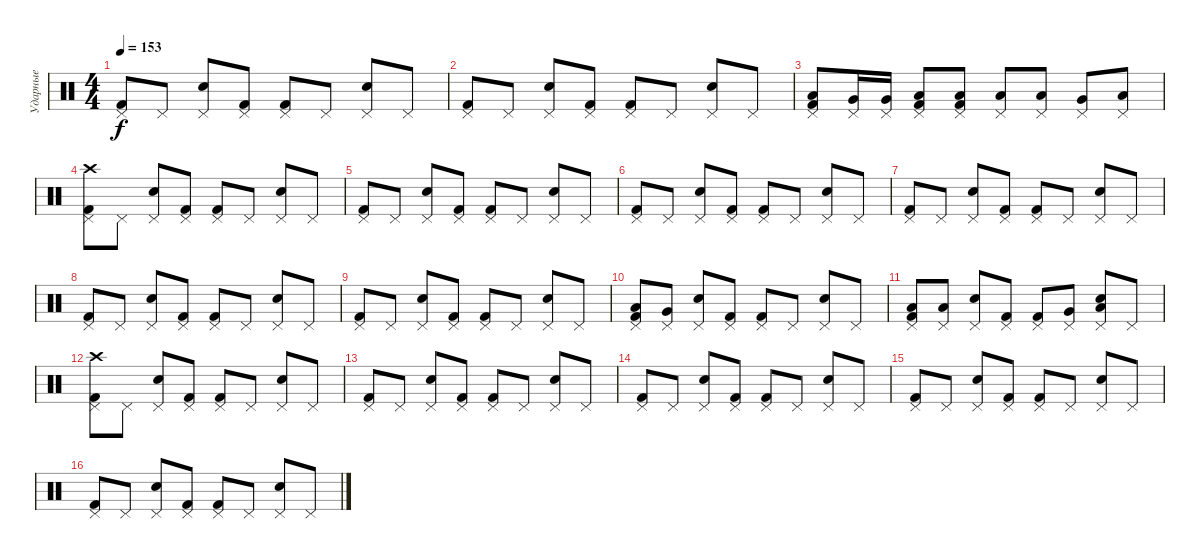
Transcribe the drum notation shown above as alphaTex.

\track ("Ударные" "Ударные") {instrument percussion}
\staff {score}
\articulation defaults
\ts (4 4)
\tempo 153
\clef neutral
\ks c
("Pedal Hi-Hat (hit)" "Kick (hit) 2").8{dy f} "Pedal Hi-Hat (hit)".8 ("Electric Snare (hit)" "Pedal Hi-Hat (hit)").8 ("Pedal Hi-Hat (hit)" "Kick (hit) 2").8 ("Pedal Hi-Hat (hit)" "Kick (hit) 2").8 "Pedal Hi-Hat (hit)".8 ("Electric Snare (hit)" "Pedal Hi-Hat (hit)").8 "Pedal Hi-Hat (hit)".8 |
("Pedal Hi-Hat (hit)" "Kick (hit) 2").8 "Pedal Hi-Hat (hit)".8 ("Electric Snare (hit)" "Pedal Hi-Hat (hit)").8 ("Pedal Hi-Hat (hit)" "Kick (hit) 2").8 ("Pedal Hi-Hat (hit)" "Kick (hit) 2").8 "Pedal Hi-Hat (hit)".8 ("Electric Snare (hit)" "Pedal Hi-Hat (hit)").8 "Pedal Hi-Hat (hit)".8 |
("Low Tom (hit)" "Pedal Hi-Hat (hit)" "Kick (hit) 2").8 ("Very Low Tom (hit)" "Pedal Hi-Hat (hit)").16 ("Very Low Tom (hit)" "Pedal Hi-Hat (hit)").16 ("Low Floor Tom (hit)" "Pedal Hi-Hat (hit)" "Kick (hit) 2").8 ("Low Floor Tom (hit)" "Pedal Hi-Hat (hit)" "Kick (hit) 2").8 ("Low Floor Tom (hit)" "Pedal Hi-Hat (hit)").8 ("Low Floor Tom (hit)" "Pedal Hi-Hat (hit)").8 ("Very Low Tom (hit)" "Pedal Hi-Hat (hit)").8 ("Low Floor Tom (hit)" "Pedal Hi-Hat (hit)").8 |
("Crash high (hit)" "Pedal Hi-Hat (hit)" "Kick (hit) 2").8 "Pedal Hi-Hat (hit)".8 ("Electric Snare (hit)" "Pedal Hi-Hat (hit)").8 ("Pedal Hi-Hat (hit)" "Kick (hit) 2").8 ("Pedal Hi-Hat (hit)" "Kick (hit) 2").8 "Pedal Hi-Hat (hit)".8 ("Electric Snare (hit)" "Pedal Hi-Hat (hit)").8 "Pedal Hi-Hat (hit)".8 |
("Pedal Hi-Hat (hit)" "Kick (hit) 2").8 "Pedal Hi-Hat (hit)".8 ("Electric Snare (hit)" "Pedal Hi-Hat (hit)").8 ("Pedal Hi-Hat (hit)" "Kick (hit) 2").8 ("Pedal Hi-Hat (hit)" "Kick (hit) 2").8 "Pedal Hi-Hat (hit)".8 ("Electric Snare (hit)" "Pedal Hi-Hat (hit)").8 "Pedal Hi-Hat (hit)".8 |
("Pedal Hi-Hat (hit)" "Kick (hit) 2").8 "Pedal Hi-Hat (hit)".8 ("Electric Snare (hit)" "Pedal Hi-Hat (hit)").8 ("Pedal Hi-Hat (hit)" "Kick (hit) 2").8 ("Pedal Hi-Hat (hit)" "Kick (hit) 2").8 "Pedal Hi-Hat (hit)".8 ("Electric Snare (hit)" "Pedal Hi-Hat (hit)").8 "Pedal Hi-Hat (hit)".8 |
("Pedal Hi-Hat (hit)" "Kick (hit) 2").8 "Pedal Hi-Hat (hit)".8 ("Electric Snare (hit)" "Pedal Hi-Hat (hit)").8 ("Pedal Hi-Hat (hit)" "Kick (hit) 2").8 ("Pedal Hi-Hat (hit)" "Kick (hit) 2").8 "Pedal Hi-Hat (hit)".8 ("Electric Snare (hit)" "Pedal Hi-Hat (hit)").8 "Pedal Hi-Hat (hit)".8 |
("Pedal Hi-Hat (hit)" "Kick (hit) 2").8 "Pedal Hi-Hat (hit)".8 ("Electric Snare (hit)" "Pedal Hi-Hat (hit)").8 ("Pedal Hi-Hat (hit)" "Kick (hit) 2").8 ("Pedal Hi-Hat (hit)" "Kick (hit) 2").8 "Pedal Hi-Hat (hit)".8 ("Electric Snare (hit)" "Pedal Hi-Hat (hit)").8 "Pedal Hi-Hat (hit)".8 |
("Pedal Hi-Hat (hit)" "Kick (hit) 2").8 "Pedal Hi-Hat (hit)".8 ("Electric Snare (hit)" "Pedal Hi-Hat (hit)").8 ("Pedal Hi-Hat (hit)" "Kick (hit) 2").8 ("Pedal Hi-Hat (hit)" "Kick (hit) 2").8 "Pedal Hi-Hat (hit)".8 ("Electric Snare (hit)" "Pedal Hi-Hat (hit)").8 "Pedal Hi-Hat (hit)".8 |
("Low Tom (hit)" "Pedal Hi-Hat (hit)" "Kick (hit) 2").8 ("Very Low Tom (hit)" "Pedal Hi-Hat (hit)").8 ("Electric Snare (hit)" "Pedal Hi-Hat (hit)").8 ("Pedal Hi-Hat (hit)" "Kick (hit) 2").8 ("Pedal Hi-Hat (hit)" "Kick (hit) 2").8 "Pedal Hi-Hat (hit)".8 ("Electric Snare (hit)" "Pedal Hi-Hat (hit)").8 "Pedal Hi-Hat (hit)".8 |
("Low Tom (hit)" "Pedal Hi-Hat (hit)" "Kick (hit) 2").8 ("Low Tom (hit)" "Pedal Hi-Hat (hit)").8 ("Electric Snare (hit)" "Pedal Hi-Hat (hit)").8 ("Pedal Hi-Hat (hit)" "Kick (hit) 2").8 ("Pedal Hi-Hat (hit)" "Kick (hit) 2").8 ("Very Low Tom (hit)" "Pedal Hi-Hat (hit)").8 ("Low Floor Tom (hit)" "Electric Snare (hit)" "Pedal Hi-Hat (hit)").8 "Pedal Hi-Hat (hit)".8 |
("Crash high (hit)" "Pedal Hi-Hat (hit)" "Kick (hit) 2").8 "Pedal Hi-Hat (hit)".8 ("Electric Snare (hit)" "Pedal Hi-Hat (hit)").8 ("Pedal Hi-Hat (hit)" "Kick (hit) 2").8 ("Pedal Hi-Hat (hit)" "Kick (hit) 2").8 "Pedal Hi-Hat (hit)".8 ("Electric Snare (hit)" "Pedal Hi-Hat (hit)").8 "Pedal Hi-Hat (hit)".8 |
("Pedal Hi-Hat (hit)" "Kick (hit) 2").8 "Pedal Hi-Hat (hit)".8 ("Electric Snare (hit)" "Pedal Hi-Hat (hit)").8 ("Pedal Hi-Hat (hit)" "Kick (hit) 2").8 ("Pedal Hi-Hat (hit)" "Kick (hit) 2").8 "Pedal Hi-Hat (hit)".8 ("Electric Snare (hit)" "Pedal Hi-Hat (hit)").8 "Pedal Hi-Hat (hit)".8 |
("Pedal Hi-Hat (hit)" "Kick (hit) 2").8 "Pedal Hi-Hat (hit)".8 ("Electric Snare (hit)" "Pedal Hi-Hat (hit)").8 ("Pedal Hi-Hat (hit)" "Kick (hit) 2").8 ("Pedal Hi-Hat (hit)" "Kick (hit) 2").8 "Pedal Hi-Hat (hit)".8 ("Electric Snare (hit)" "Pedal Hi-Hat (hit)").8 "Pedal Hi-Hat (hit)".8 |
("Pedal Hi-Hat (hit)" "Kick (hit) 2").8 "Pedal Hi-Hat (hit)".8 ("Electric Snare (hit)" "Pedal Hi-Hat (hit)").8 ("Pedal Hi-Hat (hit)" "Kick (hit) 2").8 ("Pedal Hi-Hat (hit)" "Kick (hit) 2").8 "Pedal Hi-Hat (hit)".8 ("Electric Snare (hit)" "Pedal Hi-Hat (hit)").8 "Pedal Hi-Hat (hit)".8 |
("Pedal Hi-Hat (hit)" "Kick (hit) 2").8 "Pedal Hi-Hat (hit)".8 ("Electric Snare (hit)" "Pedal Hi-Hat (hit)").8 ("Pedal Hi-Hat (hit)" "Kick (hit) 2").8 ("Pedal Hi-Hat (hit)" "Kick (hit) 2").8 "Pedal Hi-Hat (hit)".8 ("Electric Snare (hit)" "Pedal Hi-Hat (hit)").8 "Pedal Hi-Hat (hit)".8
